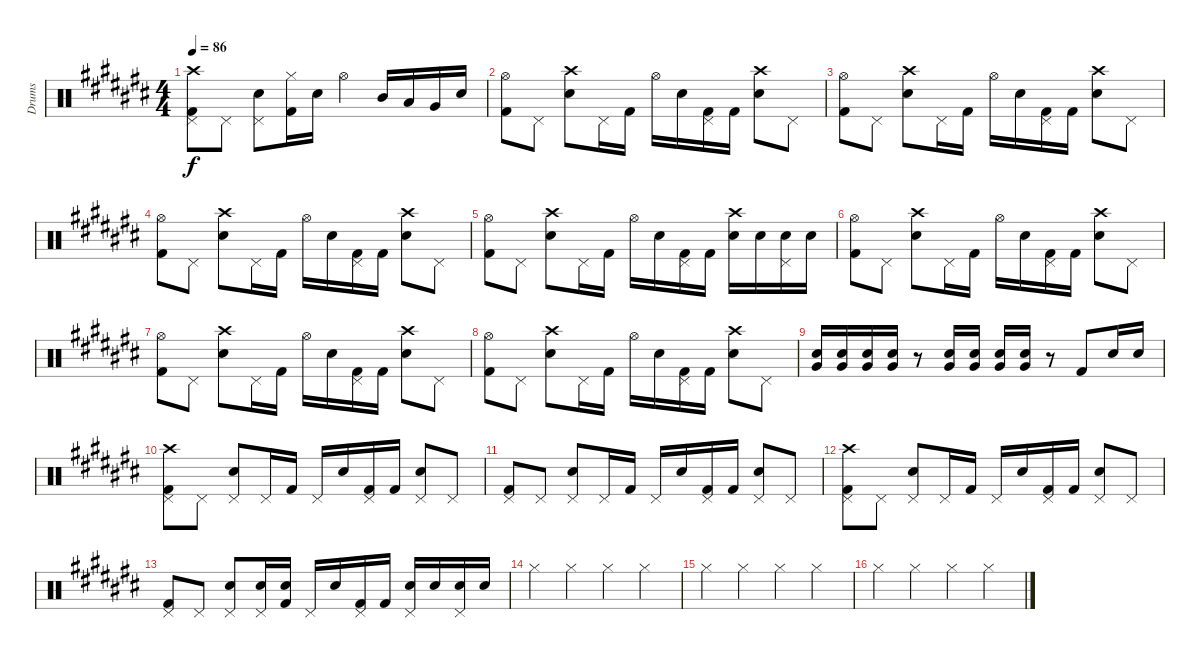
\track ("Drums" "Drums") {instrument percussion}
\staff {score}
\articulation defaults
\ts (4 4)
\tempo 86
\clef neutral
\ks c#
("Crash high (hit)" "Pedal Hi-Hat (hit)" "Kick (hit) 2").8{dy f} "Pedal Hi-Hat (hit)".8 ("Pedal Hi-Hat (hit)" "Electric Snare (hit)").8 ("Hi-Hat (closed)" "Kick (hit) 2").16 "Electric Snare (hit)".16 "Hi-Hat (open)".4 "Mid Tom (hit)".16 "Low Tom (hit)".16 "Very Low Tom (hit)".16 "Electric Snare (hit)".16 |
("Hi-Hat (open)" "Kick (hit) 2").8 "Pedal Hi-Hat (hit)".8 ("Crash high (hit)" "Electric Snare (hit)").8 "Pedal Hi-Hat (hit)".16 "Kick (hit) 2".16 "Hi-Hat (open)".16 "Electric Snare (hit)".16 ("Pedal Hi-Hat (hit)" "Kick (hit) 2").16 "Kick (hit) 2".16 ("Crash high (hit)" "Electric Snare (hit)").8 "Pedal Hi-Hat (hit)".8 |
("Hi-Hat (open)" "Kick (hit) 2").8 "Pedal Hi-Hat (hit)".8 ("Crash high (hit)" "Electric Snare (hit)").8 "Pedal Hi-Hat (hit)".16 "Kick (hit) 2".16 "Hi-Hat (open)".16 "Electric Snare (hit)".16 ("Pedal Hi-Hat (hit)" "Kick (hit) 2").16 "Kick (hit) 2".16 ("Crash high (hit)" "Electric Snare (hit)").8 "Pedal Hi-Hat (hit)".8 |
("Hi-Hat (open)" "Kick (hit) 2").8 "Pedal Hi-Hat (hit)".8 ("Crash high (hit)" "Electric Snare (hit)").8 "Pedal Hi-Hat (hit)".16 "Kick (hit) 2".16 "Hi-Hat (open)".16 "Electric Snare (hit)".16 ("Pedal Hi-Hat (hit)" "Kick (hit) 2").16 "Kick (hit) 2".16 ("Crash high (hit)" "Electric Snare (hit)").8 "Pedal Hi-Hat (hit)".8 |
("Hi-Hat (open)" "Kick (hit) 2").8 "Pedal Hi-Hat (hit)".8 ("Crash high (hit)" "Electric Snare (hit)").8 "Pedal Hi-Hat (hit)".16 "Kick (hit) 2".16 "Hi-Hat (open)".16 "Electric Snare (hit)".16 ("Pedal Hi-Hat (hit)" "Kick (hit) 2").16 "Kick (hit) 2".16 ("Crash high (hit)" "Electric Snare (hit)").16 "Electric Snare (hit)".16 ("Pedal Hi-Hat (hit)" "Electric Snare (hit)").16 "Electric Snare (hit)".16 |
("Hi-Hat (open)" "Kick (hit) 2").8 "Pedal Hi-Hat (hit)".8 ("Crash high (hit)" "Electric Snare (hit)").8 "Pedal Hi-Hat (hit)".16 "Kick (hit) 2".16 "Hi-Hat (open)".16 "Electric Snare (hit)".16 ("Pedal Hi-Hat (hit)" "Kick (hit) 2").16 "Kick (hit) 2".16 ("Crash high (hit)" "Electric Snare (hit)").8 "Pedal Hi-Hat (hit)".8 |
("Hi-Hat (open)" "Kick (hit) 2").8 "Pedal Hi-Hat (hit)".8 ("Crash high (hit)" "Electric Snare (hit)").8 "Pedal Hi-Hat (hit)".16 "Kick (hit) 2".16 "Hi-Hat (open)".16 "Electric Snare (hit)".16 ("Pedal Hi-Hat (hit)" "Kick (hit) 2").16 "Kick (hit) 2".16 ("Crash high (hit)" "Electric Snare (hit)").8 "Pedal Hi-Hat (hit)".8 |
("Hi-Hat (open)" "Kick (hit) 2").8 "Pedal Hi-Hat (hit)".8 ("Crash high (hit)" "Electric Snare (hit)").8 "Pedal Hi-Hat (hit)".16 "Kick (hit) 2".16 "Hi-Hat (open)".16 "Electric Snare (hit)".16 ("Pedal Hi-Hat (hit)" "Kick (hit) 2").16 "Kick (hit) 2".16 ("Crash high (hit)" "Electric Snare (hit)").8 "Pedal Hi-Hat (hit)".8 |
("Electric Snare (hit)" "Very Low Tom (hit)").16 ("Electric Snare (hit)" "Very Low Tom (hit)").16 ("Electric Snare (hit)" "Very Low Tom (hit)").16 ("Electric Snare (hit)" "Very Low Tom (hit)").16 r.8 ("Electric Snare (hit)" "Very Low Tom (hit)").16 ("Electric Snare (hit)" "Very Low Tom (hit)").16 ("Electric Snare (hit)" "Very Low Tom (hit)").16 ("Electric Snare (hit)" "Very Low Tom (hit)").16 r.8 "Kick (hit) 2".8 "Electric Snare (hit)".16 "Electric Snare (hit)".16 |
("Crash high (hit)" "Pedal Hi-Hat (hit)" "Kick (hit) 2").8 "Pedal Hi-Hat (hit)".8 ("Pedal Hi-Hat (hit)" "Electric Snare (hit)").8 "Pedal Hi-Hat (hit)".16 "Kick (hit) 2".16 "Pedal Hi-Hat (hit)".16 "Electric Snare (hit)".16 ("Pedal Hi-Hat (hit)" "Kick (hit) 2").16 "Kick (hit) 2".16 ("Pedal Hi-Hat (hit)" "Electric Snare (hit)").8 "Pedal Hi-Hat (hit)".8 |
("Pedal Hi-Hat (hit)" "Kick (hit) 2").8 "Pedal Hi-Hat (hit)".8 ("Pedal Hi-Hat (hit)" "Electric Snare (hit)").8 "Pedal Hi-Hat (hit)".16 "Kick (hit) 2".16 "Pedal Hi-Hat (hit)".16 "Electric Snare (hit)".16 ("Pedal Hi-Hat (hit)" "Kick (hit) 2").16 "Kick (hit) 2".16 ("Pedal Hi-Hat (hit)" "Electric Snare (hit)").8 "Pedal Hi-Hat (hit)".8 |
("Crash high (hit)" "Pedal Hi-Hat (hit)" "Kick (hit) 2").8 "Pedal Hi-Hat (hit)".8 ("Pedal Hi-Hat (hit)" "Electric Snare (hit)").8 "Pedal Hi-Hat (hit)".16 "Kick (hit) 2".16 "Pedal Hi-Hat (hit)".16 "Electric Snare (hit)".16 ("Pedal Hi-Hat (hit)" "Kick (hit) 2").16 "Kick (hit) 2".16 ("Pedal Hi-Hat (hit)" "Electric Snare (hit)").8 "Pedal Hi-Hat (hit)".8 |
("Pedal Hi-Hat (hit)" "Kick (hit) 2").8 "Pedal Hi-Hat (hit)".8 ("Pedal Hi-Hat (hit)" "Electric Snare (hit)").8 ("Pedal Hi-Hat (hit)" "Electric Snare (hit)").16 ("Electric Snare (hit)" "Kick (hit) 2").16 "Pedal Hi-Hat (hit)".16 "Electric Snare (hit)".16 ("Pedal Hi-Hat (hit)" "Kick (hit) 2").16 "Kick (hit) 2".16 ("Pedal Hi-Hat (hit)" "Electric Snare (hit)").16 "Electric Snare (hit)".16 ("Pedal Hi-Hat (hit)" "Electric Snare (hit)").16 "Electric Snare (hit)".16 |
"Hi-Hat (closed)".4 "Hi-Hat (closed)".4 "Hi-Hat (closed)".4 "Hi-Hat (closed)".4 |
"Hi-Hat (closed)".4 "Hi-Hat (closed)".4 "Hi-Hat (closed)".4 "Hi-Hat (closed)".4 |
"Hi-Hat (closed)".4 "Hi-Hat (closed)".4 "Hi-Hat (closed)".4 "Hi-Hat (closed)".4
